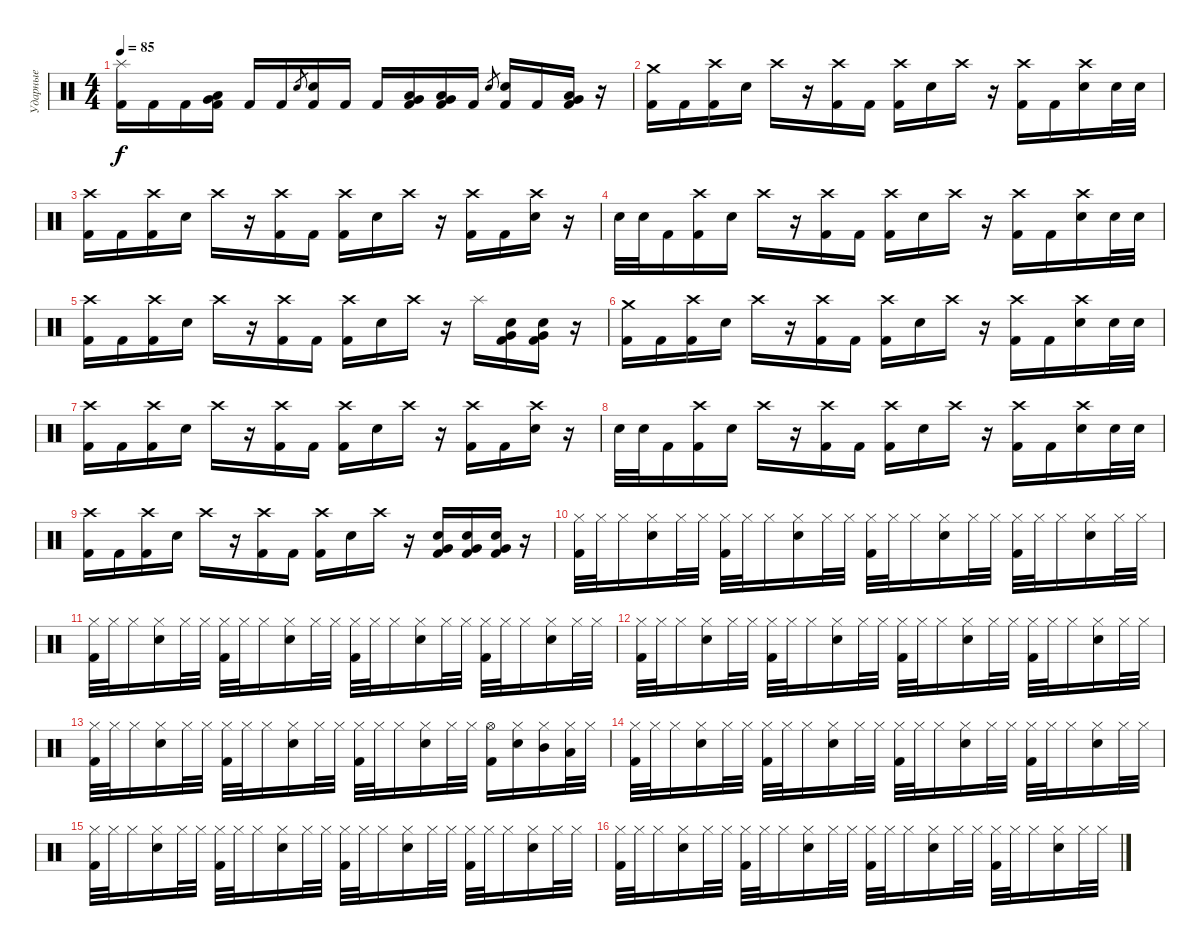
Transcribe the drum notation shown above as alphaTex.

\track ("Ударные" "Ударные") {instrument percussion}
\staff {score}
\articulation defaults
\ts (4 4)
\tempo 85
\clef neutral
\ks c
("Splash (hit)" "Kick (hit) 2").16{dy f} "Kick (hit) 2".16 "Kick (hit) 2".16 ("Very Low Tom (hit)" "Low Tom (hit)" "Kick (hit) 2").16 "Kick (hit) 2".16 "Kick (hit) 2".16 "Electric Snare (hit)".8{gr} ("Electric Snare (hit)" "Kick (hit) 2").16 "Kick (hit) 2".16 "Kick (hit) 2".16 ("Very Low Tom (hit)" "Low Tom (hit)" "Kick (hit) 2").16 ("Very Low Tom (hit)" "Low Tom (hit)" "Kick (hit) 2").16 "Kick (hit) 2".16 "Electric Snare (hit)".8{gr} ("Electric Snare (hit)" "Kick (hit) 2").16 "Kick (hit) 2".16 ("Very Low Tom (hit)" "Low Tom (hit)" "Kick (hit) 2").16 r.16 |
("Crash medium (hit)" "Kick (hit) 2").16 "Kick (hit) 2".16 ("Crash high (hit)" "Kick (hit) 2").16 "Electric Snare (hit)".16 "Crash high (hit)".16 r.16 ("Crash high (hit)" "Kick (hit) 2").16 "Kick (hit) 2".16 ("Crash high (hit)" "Kick (hit) 2").16 "Electric Snare (hit)".16 "Crash high (hit)".16 r.16 ("Crash high (hit)" "Kick (hit) 2").16 "Kick (hit) 2".16 ("Crash high (hit)" "Electric Snare (hit)").16 "Electric Snare (hit)".32 "Electric Snare (hit)".32 |
("Crash high (hit)" "Kick (hit) 2").16 "Kick (hit) 2".16 ("Crash high (hit)" "Kick (hit) 2").16 "Electric Snare (hit)".16 "Crash high (hit)".16 r.16 ("Crash high (hit)" "Kick (hit) 2").16 "Kick (hit) 2".16 ("Crash high (hit)" "Kick (hit) 2").16 "Electric Snare (hit)".16 "Crash high (hit)".16 r.16 ("Crash high (hit)" "Kick (hit) 2").16 "Kick (hit) 2".16 ("Crash high (hit)" "Electric Snare (hit)").16 r.16 |
"Electric Snare (hit)".32 "Electric Snare (hit)".32 "Kick (hit) 2".16 ("Crash high (hit)" "Kick (hit) 2").16 "Electric Snare (hit)".16 "Crash high (hit)".16 r.16 ("Crash high (hit)" "Kick (hit) 2").16 "Kick (hit) 2".16 ("Crash high (hit)" "Kick (hit) 2").16 "Electric Snare (hit)".16 "Crash high (hit)".16 r.16 ("Crash high (hit)" "Kick (hit) 2").16 "Kick (hit) 2".16 ("Crash high (hit)" "Electric Snare (hit)").16 "Electric Snare (hit)".32 "Electric Snare (hit)".32 |
("Crash high (hit)" "Kick (hit) 2").16 "Kick (hit) 2".16 ("Crash high (hit)" "Kick (hit) 2").16 "Electric Snare (hit)".16 "Crash high (hit)".16 r.16 ("Crash high (hit)" "Kick (hit) 2").16 "Kick (hit) 2".16 ("Crash high (hit)" "Kick (hit) 2").16 "Electric Snare (hit)".16 "Crash high (hit)".16 r.16 "Splash (hit)".16 ("Very Low Tom (hit)" "Electric Snare (hit)" "Kick (hit) 2").16 ("Very Low Tom (hit)" "Electric Snare (hit)" "Kick (hit) 2").16 r.16 |
("Crash medium (hit)" "Kick (hit) 2").16 "Kick (hit) 2".16 ("Crash high (hit)" "Kick (hit) 2").16 "Electric Snare (hit)".16 "Crash high (hit)".16 r.16 ("Crash high (hit)" "Kick (hit) 2").16 "Kick (hit) 2".16 ("Crash high (hit)" "Kick (hit) 2").16 "Electric Snare (hit)".16 "Crash high (hit)".16 r.16 ("Crash high (hit)" "Kick (hit) 2").16 "Kick (hit) 2".16 ("Crash high (hit)" "Electric Snare (hit)").16 "Electric Snare (hit)".32 "Electric Snare (hit)".32 |
("Crash high (hit)" "Kick (hit) 2").16 "Kick (hit) 2".16 ("Crash high (hit)" "Kick (hit) 2").16 "Electric Snare (hit)".16 "Crash high (hit)".16 r.16 ("Crash high (hit)" "Kick (hit) 2").16 "Kick (hit) 2".16 ("Crash high (hit)" "Kick (hit) 2").16 "Electric Snare (hit)".16 "Crash high (hit)".16 r.16 ("Crash high (hit)" "Kick (hit) 2").16 "Kick (hit) 2".16 ("Crash high (hit)" "Electric Snare (hit)").16 r.16 |
"Electric Snare (hit)".32 "Electric Snare (hit)".32 "Kick (hit) 2".16 ("Crash high (hit)" "Kick (hit) 2").16 "Electric Snare (hit)".16 "Crash high (hit)".16 r.16 ("Crash high (hit)" "Kick (hit) 2").16 "Kick (hit) 2".16 ("Crash high (hit)" "Kick (hit) 2").16 "Electric Snare (hit)".16 "Crash high (hit)".16 r.16 ("Crash high (hit)" "Kick (hit) 2").16 "Kick (hit) 2".16 ("Crash high (hit)" "Electric Snare (hit)").16 "Electric Snare (hit)".32 "Electric Snare (hit)".32 |
("Crash high (hit)" "Kick (hit) 2").16 "Kick (hit) 2".16 ("Crash high (hit)" "Kick (hit) 2").16 "Electric Snare (hit)".16 "Crash high (hit)".16 r.16 ("Crash high (hit)" "Kick (hit) 2").16 "Kick (hit) 2".16 ("Crash high (hit)" "Kick (hit) 2").16 "Electric Snare (hit)".16 "Crash high (hit)".16 r.16 ("Very Low Tom (hit)" "Electric Snare (hit)" "Kick (hit) 2").16 ("Very Low Tom (hit)" "Electric Snare (hit)" "Kick (hit) 2").16 ("Very Low Tom (hit)" "Electric Snare (hit)" "Kick (hit) 2").16 r.16 |
("Hi-Hat (closed)" "Kick (hit) 2").32 "Hi-Hat (closed)".32 "Hi-Hat (closed)".16 ("Hi-Hat (closed)" "Electric Snare (hit)").16 "Hi-Hat (closed)".32 "Hi-Hat (closed)".32 ("Hi-Hat (closed)" "Kick (hit) 2").32 "Hi-Hat (closed)".32 "Hi-Hat (closed)".16 ("Hi-Hat (closed)" "Electric Snare (hit)").16 "Hi-Hat (closed)".32 "Hi-Hat (closed)".32 ("Hi-Hat (closed)" "Kick (hit) 2").32 "Hi-Hat (closed)".32 "Hi-Hat (closed)".16 ("Hi-Hat (closed)" "Electric Snare (hit)").16 "Hi-Hat (closed)".32 "Hi-Hat (closed)".32 ("Hi-Hat (closed)" "Kick (hit) 2").32 "Hi-Hat (closed)".32 "Hi-Hat (closed)".16 ("Hi-Hat (closed)" "Electric Snare (hit)").16 "Hi-Hat (closed)".32 "Hi-Hat (closed)".32 |
("Hi-Hat (closed)" "Kick (hit) 2").32 "Hi-Hat (closed)".32 "Hi-Hat (closed)".16 ("Hi-Hat (closed)" "Electric Snare (hit)").16 "Hi-Hat (closed)".32 "Hi-Hat (closed)".32 ("Hi-Hat (closed)" "Kick (hit) 2").32 "Hi-Hat (closed)".32 "Hi-Hat (closed)".16 ("Hi-Hat (closed)" "Electric Snare (hit)").16 "Hi-Hat (closed)".32 "Hi-Hat (closed)".32 ("Hi-Hat (closed)" "Kick (hit) 2").32 "Hi-Hat (closed)".32 "Hi-Hat (closed)".16 ("Hi-Hat (closed)" "Electric Snare (hit)").16 "Hi-Hat (closed)".32 "Hi-Hat (closed)".32 ("Hi-Hat (closed)" "Kick (hit) 2").32 "Hi-Hat (closed)".32 "Hi-Hat (closed)".16 ("Hi-Hat (closed)" "Electric Snare (hit)").16 "Hi-Hat (closed)".32 "Hi-Hat (closed)".32 |
("Hi-Hat (closed)" "Kick (hit) 2").32 "Hi-Hat (closed)".32 "Hi-Hat (closed)".16 ("Hi-Hat (closed)" "Electric Snare (hit)").16 "Hi-Hat (closed)".32 "Hi-Hat (closed)".32 ("Hi-Hat (closed)" "Kick (hit) 2").32 "Hi-Hat (closed)".32 "Hi-Hat (closed)".16 ("Hi-Hat (closed)" "Electric Snare (hit)").16 "Hi-Hat (closed)".32 "Hi-Hat (closed)".32 ("Hi-Hat (closed)" "Kick (hit) 2").32 "Hi-Hat (closed)".32 "Hi-Hat (closed)".16 ("Hi-Hat (closed)" "Electric Snare (hit)").16 "Hi-Hat (closed)".32 "Hi-Hat (closed)".32 ("Hi-Hat (closed)" "Kick (hit) 2").32 "Hi-Hat (closed)".32 "Hi-Hat (closed)".16 ("Hi-Hat (closed)" "Electric Snare (hit)").16 "Hi-Hat (closed)".32 "Hi-Hat (closed)".32 |
("Hi-Hat (closed)" "Kick (hit) 2").32 "Hi-Hat (closed)".32 "Hi-Hat (closed)".16 ("Hi-Hat (closed)" "Electric Snare (hit)").16 "Hi-Hat (closed)".32 "Hi-Hat (closed)".32 ("Hi-Hat (closed)" "Kick (hit) 2").32 "Hi-Hat (closed)".32 "Hi-Hat (closed)".16 ("Hi-Hat (closed)" "Electric Snare (hit)").16 "Hi-Hat (closed)".32 "Hi-Hat (closed)".32 ("Hi-Hat (closed)" "Kick (hit) 2").32 "Hi-Hat (closed)".32 "Hi-Hat (closed)".16 ("Hi-Hat (closed)" "Electric Snare (hit)").16 "Hi-Hat (closed)".32 "Hi-Hat (closed)".32 ("Hi-Hat (open)" "Kick (hit) 2").16 ("Hi-Hat (closed)" "Electric Snare (hit)").16 ("Hi-Hat (closed)" "Mid Tom (hit)").16 ("Hi-Hat (closed)" "Low Tom (hit)").32 "Hi-Hat (closed)".32 |
("Hi-Hat (closed)" "Kick (hit) 2").32 "Hi-Hat (closed)".32 "Hi-Hat (closed)".16 ("Hi-Hat (closed)" "Electric Snare (hit)").16 "Hi-Hat (closed)".32 "Hi-Hat (closed)".32 ("Hi-Hat (closed)" "Kick (hit) 2").32 "Hi-Hat (closed)".32 "Hi-Hat (closed)".16 ("Hi-Hat (closed)" "Electric Snare (hit)").16 "Hi-Hat (closed)".32 "Hi-Hat (closed)".32 ("Hi-Hat (closed)" "Kick (hit) 2").32 "Hi-Hat (closed)".32 "Hi-Hat (closed)".16 ("Hi-Hat (closed)" "Electric Snare (hit)").16 "Hi-Hat (closed)".32 "Hi-Hat (closed)".32 ("Hi-Hat (closed)" "Kick (hit) 2").32 "Hi-Hat (closed)".32 "Hi-Hat (closed)".16 ("Hi-Hat (closed)" "Electric Snare (hit)").16 "Hi-Hat (closed)".32 "Hi-Hat (closed)".32 |
("Hi-Hat (closed)" "Kick (hit) 2").32 "Hi-Hat (closed)".32 "Hi-Hat (closed)".16 ("Hi-Hat (closed)" "Electric Snare (hit)").16 "Hi-Hat (closed)".32 "Hi-Hat (closed)".32 ("Hi-Hat (closed)" "Kick (hit) 2").32 "Hi-Hat (closed)".32 "Hi-Hat (closed)".16 ("Hi-Hat (closed)" "Electric Snare (hit)").16 "Hi-Hat (closed)".32 "Hi-Hat (closed)".32 ("Hi-Hat (closed)" "Kick (hit) 2").32 "Hi-Hat (closed)".32 "Hi-Hat (closed)".16 ("Hi-Hat (closed)" "Electric Snare (hit)").16 "Hi-Hat (closed)".32 "Hi-Hat (closed)".32 ("Hi-Hat (closed)" "Kick (hit) 2").32 "Hi-Hat (closed)".32 "Hi-Hat (closed)".16 ("Hi-Hat (closed)" "Electric Snare (hit)").16 "Hi-Hat (closed)".32 "Hi-Hat (closed)".32 |
("Hi-Hat (closed)" "Kick (hit) 2").32 "Hi-Hat (closed)".32 "Hi-Hat (closed)".16 ("Hi-Hat (closed)" "Electric Snare (hit)").16 "Hi-Hat (closed)".32 "Hi-Hat (closed)".32 ("Hi-Hat (closed)" "Kick (hit) 2").32 "Hi-Hat (closed)".32 "Hi-Hat (closed)".16 ("Hi-Hat (closed)" "Electric Snare (hit)").16 "Hi-Hat (closed)".32 "Hi-Hat (closed)".32 ("Hi-Hat (closed)" "Kick (hit) 2").32 "Hi-Hat (closed)".32 "Hi-Hat (closed)".16 ("Hi-Hat (closed)" "Electric Snare (hit)").16 "Hi-Hat (closed)".32 "Hi-Hat (closed)".32 ("Hi-Hat (closed)" "Kick (hit) 2").32 "Hi-Hat (closed)".32 "Hi-Hat (closed)".16 ("Hi-Hat (closed)" "Electric Snare (hit)").16 "Hi-Hat (closed)".32 "Hi-Hat (closed)".32
